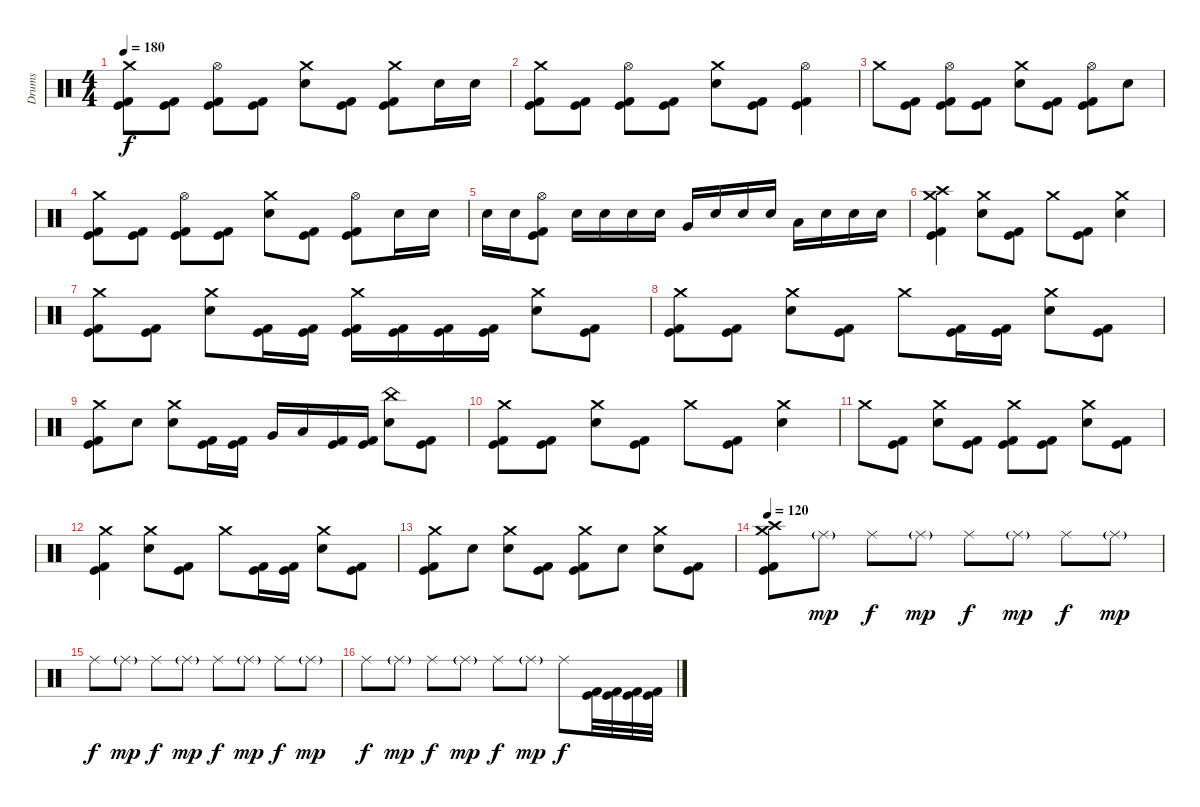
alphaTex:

\track ("Drums" "Drums") {instrument percussion}
\staff {score}
\articulation defaults
\ts (4 4)
\tempo 180
\clef neutral
\ks c
("Crash medium (hit)" "Kick (hit)" "Kick (hit) 2").8{dy f} ("Kick (hit)" "Kick (hit) 2").8 ("Hi-Hat (open)" "Kick (hit)" "Kick (hit) 2").8 ("Kick (hit)" "Kick (hit) 2").8 ("Crash medium (hit)" "Electric Snare (hit)").8 ("Kick (hit)" "Kick (hit) 2").8 ("Crash medium (hit)" "Kick (hit)" "Kick (hit) 2").8 "Electric Snare (hit)".16 "Electric Snare (hit)".16 |
("Crash medium (hit)" "Kick (hit)" "Kick (hit) 2").8 ("Kick (hit)" "Kick (hit) 2").8 ("Hi-Hat (open)" "Kick (hit)" "Kick (hit) 2").8 ("Kick (hit)" "Kick (hit) 2").8 ("Crash medium (hit)" "Electric Snare (hit)").8 ("Kick (hit)" "Kick (hit) 2").8 ("Hi-Hat (open)" "Kick (hit)" "Kick (hit) 2").4 |
"Crash medium (hit)".8 ("Kick (hit)" "Kick (hit) 2").8 ("Hi-Hat (open)" "Kick (hit)" "Kick (hit) 2").8 ("Kick (hit)" "Kick (hit) 2").8 ("Crash medium (hit)" "Electric Snare (hit)").8 ("Kick (hit)" "Kick (hit) 2").8 ("Hi-Hat (open)" "Kick (hit)" "Kick (hit) 2").8 "Electric Snare (hit)".8 |
("Crash medium (hit)" "Kick (hit)" "Kick (hit) 2").8 ("Kick (hit)" "Kick (hit) 2").8 ("Hi-Hat (open)" "Kick (hit)" "Kick (hit) 2").8 ("Kick (hit)" "Kick (hit) 2").8 ("Crash medium (hit)" "Electric Snare (hit)").8 ("Kick (hit)" "Kick (hit) 2").8 ("Hi-Hat (open)" "Kick (hit)" "Kick (hit) 2").8 "Electric Snare (hit)".16 "Electric Snare (hit)".16 |
"Electric Snare (hit)".16 "Electric Snare (hit)".16 ("Hi-Hat (open)" "Kick (hit)" "Kick (hit) 2").8 "Electric Snare (hit)".16 "Electric Snare (hit)".16 "Electric Snare (hit)".16 "Electric Snare (hit)".16 "Very Low Tom (hit)".16 "Electric Snare (hit)".16 "Electric Snare (hit)".16 "Electric Snare (hit)".16 "Low Floor Tom (hit)".16 "Electric Snare (hit)".16 "Electric Snare (hit)".16 "Electric Snare (hit)".16 |
("Crash high (hit)" "Crash medium (hit)" "Kick (hit)" "Kick (hit) 2").4 ("Crash medium (hit)" "Electric Snare (hit)").8 ("Kick (hit)" "Kick (hit) 2").8 "Crash medium (hit)".8 ("Kick (hit)" "Kick (hit) 2").8 ("Crash medium (hit)" "Electric Snare (hit)").4 |
("Crash medium (hit)" "Kick (hit)" "Kick (hit) 2").8 ("Kick (hit)" "Kick (hit) 2").8 ("Crash medium (hit)" "Electric Snare (hit)").8 ("Kick (hit)" "Kick (hit) 2").16 ("Kick (hit)" "Kick (hit) 2").16 ("Crash medium (hit)" "Kick (hit)" "Kick (hit) 2").16 ("Kick (hit)" "Kick (hit) 2").16 ("Kick (hit)" "Kick (hit) 2").16 ("Kick (hit)" "Kick (hit) 2").16 ("Crash medium (hit)" "Electric Snare (hit)").8 ("Kick (hit)" "Kick (hit) 2").8 |
("Crash medium (hit)" "Kick (hit)" "Kick (hit) 2").8 ("Kick (hit)" "Kick (hit) 2").8 ("Crash medium (hit)" "Electric Snare (hit)").8 ("Kick (hit)" "Kick (hit) 2").8 "Crash medium (hit)".8 ("Kick (hit)" "Kick (hit) 2").16 ("Kick (hit)" "Kick (hit) 2").16 ("Crash medium (hit)" "Electric Snare (hit)").8 ("Kick (hit)" "Kick (hit) 2").8 |
("Crash medium (hit)" "Kick (hit)" "Kick (hit) 2").8 "Electric Snare (hit)".8 ("Crash medium (hit)" "Electric Snare (hit)").8 ("Kick (hit)" "Kick (hit) 2").16 ("Kick (hit)" "Kick (hit) 2").16 "Very Low Tom (hit)".16 "Low Floor Tom (hit)".16 ("Kick (hit)" "Kick (hit) 2").16 ("Kick (hit)" "Kick (hit) 2").16 ("China (hit)" "Electric Snare (hit)").8 ("Kick (hit)" "Kick (hit) 2").8 |
("Crash medium (hit)" "Kick (hit)" "Kick (hit) 2").8 ("Kick (hit)" "Kick (hit) 2").8 ("Crash medium (hit)" "Electric Snare (hit)").8 ("Kick (hit)" "Kick (hit) 2").8 "Crash medium (hit)".8 ("Kick (hit)" "Kick (hit) 2").8 ("Crash medium (hit)" "Electric Snare (hit)").4 |
"Crash medium (hit)".8 ("Kick (hit)" "Kick (hit) 2").8 ("Crash medium (hit)" "Electric Snare (hit)").8 ("Kick (hit)" "Kick (hit) 2").8 ("Crash medium (hit)" "Kick (hit)" "Kick (hit) 2").8 ("Kick (hit)" "Kick (hit) 2").8 ("Crash medium (hit)" "Electric Snare (hit)").8 ("Kick (hit)" "Kick (hit) 2").8 |
("Crash medium (hit)" "Kick (hit)" "Kick (hit) 2").4 ("Crash medium (hit)" "Electric Snare (hit)").8 ("Kick (hit)" "Kick (hit) 2").8 "Crash medium (hit)".8 ("Kick (hit)" "Kick (hit) 2").16 ("Kick (hit)" "Kick (hit) 2").16 ("Crash medium (hit)" "Electric Snare (hit)").8 ("Kick (hit)" "Kick (hit) 2").8 |
("Crash medium (hit)" "Kick (hit)" "Kick (hit) 2").8 "Electric Snare (hit)".8 ("Crash medium (hit)" "Electric Snare (hit)").8 ("Kick (hit)" "Kick (hit) 2").8 ("Crash medium (hit)" "Kick (hit)" "Kick (hit) 2").8 "Electric Snare (hit)".8 ("Crash medium (hit)" "Electric Snare (hit)").8 ("Kick (hit)" "Kick (hit) 2").8 |
\tempo 120
("Crash high (hit)" "Crash medium (hit)" "Kick (hit)" "Kick (hit) 2").8 "Ride (middle)"{g}.8{dy mp} "Ride (middle)".8{dy f} "Ride (middle)"{g}.8{dy mp} "Ride (middle)".8{dy f} "Ride (middle)"{g}.8{dy mp} "Ride (middle)".8{dy f} "Ride (middle)"{g}.8{dy mp} |
"Ride (middle)".8{dy f} "Ride (middle)"{g}.8{dy mp} "Ride (middle)".8{dy f} "Ride (middle)"{g}.8{dy mp} "Ride (middle)".8{dy f} "Ride (middle)"{g}.8{dy mp} "Ride (middle)".8{dy f} "Ride (middle)"{g}.8{dy mp} |
"Ride (middle)".8{dy f} "Ride (middle)"{g}.8{dy mp} "Ride (middle)".8{dy f} "Ride (middle)"{g}.8{dy mp} "Ride (middle)".8{dy f} "Ride (middle)"{g}.8{dy mp} "Ride (middle)".8{dy f} ("Kick (hit)" "Kick (hit) 2").32 ("Kick (hit)" "Kick (hit) 2").32 ("Kick (hit)" "Kick (hit) 2").32 ("Kick (hit)" "Kick (hit) 2").32
